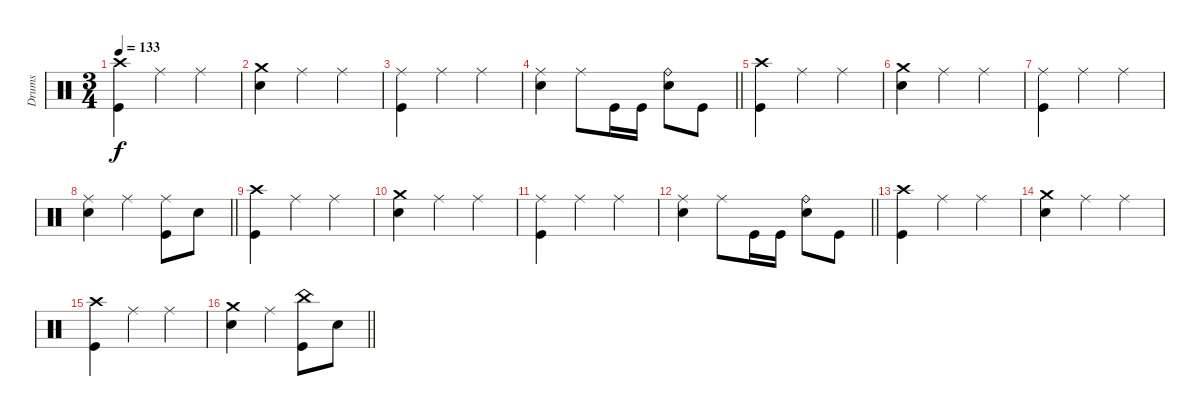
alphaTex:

\track ("Drums" "Drums") {instrument percussion}
\staff
\articulation defaults
\ts (3 4)
\tempo 133
\clef neutral
\ks c
("Crash high (hit)" "Kick (hit)").4{dy f} "Ride (middle)".4 "Ride (middle)".4 |
("Crash medium (hit)" "Electric Snare (hit)").4 "Ride (middle)".4 "Ride (middle)".4 |
("Ride (middle)" "Kick (hit)").4 "Ride (middle)".4 "Ride (middle)".4 |
\barLineRight lightlight
("Ride (middle)" "Electric Snare (hit)").4 "Ride (middle)".8 "Kick (hit)".16 "Kick (hit)".16 ("Ride (bell)" "Electric Snare (hit)").8 "Kick (hit)".8 |
("Crash high (hit)" "Kick (hit)").4 "Ride (middle)".4 "Ride (middle)".4 |
("Crash medium (hit)" "Electric Snare (hit)").4 "Ride (middle)".4 "Ride (middle)".4 |
("Ride (middle)" "Kick (hit)").4 "Ride (middle)".4 "Ride (middle)".4 |
\barLineRight lightlight
("Ride (middle)" "Electric Snare (hit)").4 "Ride (middle)".4 ("Ride (middle)" "Kick (hit)").8 "Electric Snare (hit)".8 |
("Crash high (hit)" "Kick (hit)").4 "Ride (middle)".4 "Ride (middle)".4 |
("Crash medium (hit)" "Electric Snare (hit)").4 "Ride (middle)".4 "Ride (middle)".4 |
("Ride (middle)" "Kick (hit)").4 "Ride (middle)".4 "Ride (middle)".4 |
\barLineRight lightlight
("Ride (middle)" "Electric Snare (hit)").4 "Ride (middle)".8 "Kick (hit)".16 "Kick (hit)".16 ("Ride (bell)" "Electric Snare (hit)").8 "Kick (hit)".8 |
("Crash high (hit)" "Kick (hit)").4 "Ride (middle)".4 "Ride (middle)".4 |
("Crash medium (hit)" "Electric Snare (hit)").4 "Ride (middle)".4 "Ride (middle)".4 |
("Crash high (hit)" "Kick (hit)").4 "Ride (middle)".4 "Ride (middle)".4 |
\barLineRight lightlight
("Crash medium (hit)" "Electric Snare (hit)").4 "Ride (middle)".4 ("China (hit)" "Kick (hit)").8 "Electric Snare (hit)".8
